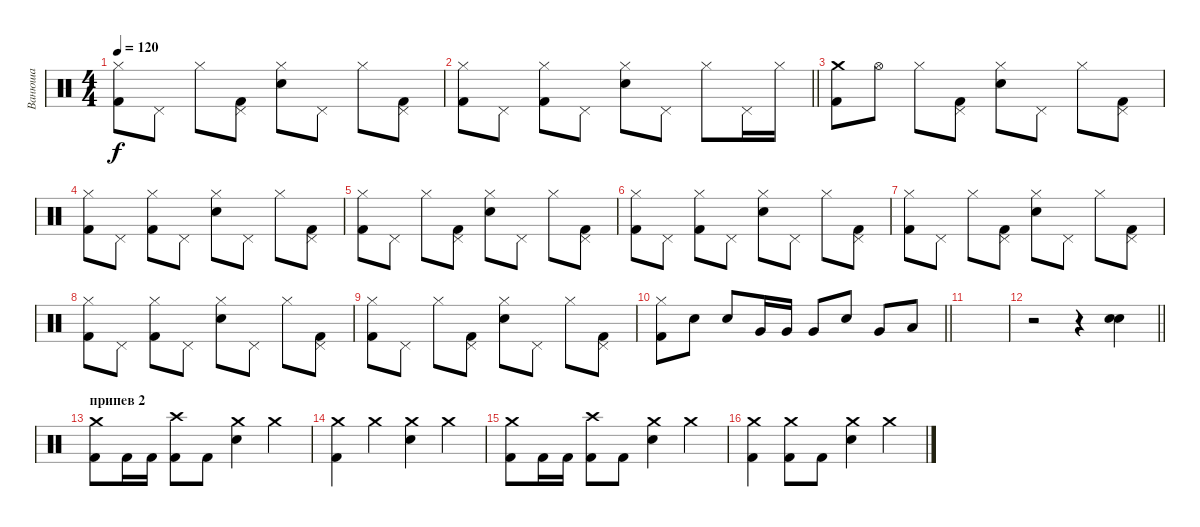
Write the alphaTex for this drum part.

\track ("Ванюша" "Ванюша") {instrument percussion}
\staff {score}
\articulation defaults
\ts (4 4)
\tempo 120
\clef neutral
\ks c
("Hi-Hat (closed)" "Kick (hit) 2").8{dy f} "Pedal Hi-Hat (hit)".8 "Hi-Hat (closed)".8 ("Pedal Hi-Hat (hit)" "Kick (hit) 2").8 ("Hi-Hat (closed)" "Snare (hit) 2").8 "Pedal Hi-Hat (hit)".8 "Hi-Hat (closed)".8 ("Pedal Hi-Hat (hit)" "Kick (hit) 2").8 |
\barLineRight lightlight
("Hi-Hat (closed)" "Kick (hit) 2").8 "Pedal Hi-Hat (hit)".8 ("Hi-Hat (closed)" "Kick (hit) 2").8 "Pedal Hi-Hat (hit)".8 ("Hi-Hat (closed)" "Snare (hit) 2").8 "Pedal Hi-Hat (hit)".8 "Hi-Hat (closed)".8 "Pedal Hi-Hat (hit)".16 "Hi-Hat (closed)".16 |
("Crash medium (hit)" "Kick (hit) 2").8 "Hi-Hat (open)".8 "Hi-Hat (closed)".8 ("Pedal Hi-Hat (hit)" "Kick (hit) 2").8 ("Hi-Hat (closed)" "Snare (hit) 2").8 "Pedal Hi-Hat (hit)".8 "Hi-Hat (closed)".8 ("Pedal Hi-Hat (hit)" "Kick (hit) 2").8 |
("Hi-Hat (closed)" "Kick (hit) 2").8 "Pedal Hi-Hat (hit)".8 ("Hi-Hat (closed)" "Kick (hit) 2").8 "Pedal Hi-Hat (hit)".8 ("Hi-Hat (closed)" "Snare (hit) 2").8 "Pedal Hi-Hat (hit)".8 "Hi-Hat (closed)".8 ("Pedal Hi-Hat (hit)" "Kick (hit) 2").8 |
("Hi-Hat (closed)" "Kick (hit) 2").8 "Pedal Hi-Hat (hit)".8 "Hi-Hat (closed)".8 ("Pedal Hi-Hat (hit)" "Kick (hit) 2").8 ("Hi-Hat (closed)" "Snare (hit) 2").8 "Pedal Hi-Hat (hit)".8 "Hi-Hat (closed)".8 ("Pedal Hi-Hat (hit)" "Kick (hit) 2").8 |
("Hi-Hat (closed)" "Kick (hit) 2").8 "Pedal Hi-Hat (hit)".8 ("Hi-Hat (closed)" "Kick (hit) 2").8 "Pedal Hi-Hat (hit)".8 ("Hi-Hat (closed)" "Snare (hit) 2").8 "Pedal Hi-Hat (hit)".8 "Hi-Hat (closed)".8 ("Pedal Hi-Hat (hit)" "Kick (hit) 2").8 |
("Hi-Hat (closed)" "Kick (hit) 2").8 "Pedal Hi-Hat (hit)".8 "Hi-Hat (closed)".8 ("Pedal Hi-Hat (hit)" "Kick (hit) 2").8 ("Hi-Hat (closed)" "Snare (hit) 2").8 "Pedal Hi-Hat (hit)".8 "Hi-Hat (closed)".8 ("Pedal Hi-Hat (hit)" "Kick (hit) 2").8 |
("Hi-Hat (closed)" "Kick (hit) 2").8 "Pedal Hi-Hat (hit)".8 ("Hi-Hat (closed)" "Kick (hit) 2").8 "Pedal Hi-Hat (hit)".8 ("Hi-Hat (closed)" "Snare (hit) 2").8 "Pedal Hi-Hat (hit)".8 "Hi-Hat (closed)".8 ("Pedal Hi-Hat (hit)" "Kick (hit) 2").8 |
("Hi-Hat (closed)" "Kick (hit) 2").8 "Pedal Hi-Hat (hit)".8 "Hi-Hat (closed)".8 ("Pedal Hi-Hat (hit)" "Kick (hit) 2").8 ("Hi-Hat (closed)" "Snare (hit) 2").8 "Pedal Hi-Hat (hit)".8 "Hi-Hat (closed)".8 ("Pedal Hi-Hat (hit)" "Kick (hit) 2").8 |
\barLineRight lightlight
("Hi-Hat (closed)" "Kick (hit) 2").8 "Snare (hit) 2".8 "Snare (hit) 2".8 "Very Low Tom (hit)".16 "Very Low Tom (hit)".16 "Very Low Tom (hit)".8 "Snare (hit) 2".8 "Very Low Tom (hit)".8 "Low Tom (hit)".8 |
|
\barLineRight lightlight
r.2 r.4 ("Snare (hit) 2" "Snare (hit) 2").4 |
\section ("" "припев 2")
("Crash medium (hit)" "Kick (hit) 2").8 "Kick (hit) 2".16 "Kick (hit) 2".16 ("Crash high (hit)" "Kick (hit) 2").8 "Kick (hit) 2".8 ("Crash medium (hit)" "Snare (hit) 2").4 "Crash medium (hit)".4 |
("Crash medium (hit)" "Kick (hit) 2").4 "Crash medium (hit)".4 ("Crash medium (hit)" "Snare (hit) 2").4 "Crash medium (hit)".4 |
("Crash medium (hit)" "Kick (hit) 2").8 "Kick (hit) 2".16 "Kick (hit) 2".16 ("Crash high (hit)" "Kick (hit) 2").8 "Kick (hit) 2".8 ("Crash medium (hit)" "Snare (hit) 2").4 "Crash medium (hit)".4 |
("Crash medium (hit)" "Kick (hit) 2").4 ("Crash medium (hit)" "Kick (hit) 2").8 "Kick (hit) 2".8 ("Crash medium (hit)" "Snare (hit) 2").4 "Crash medium (hit)".4
